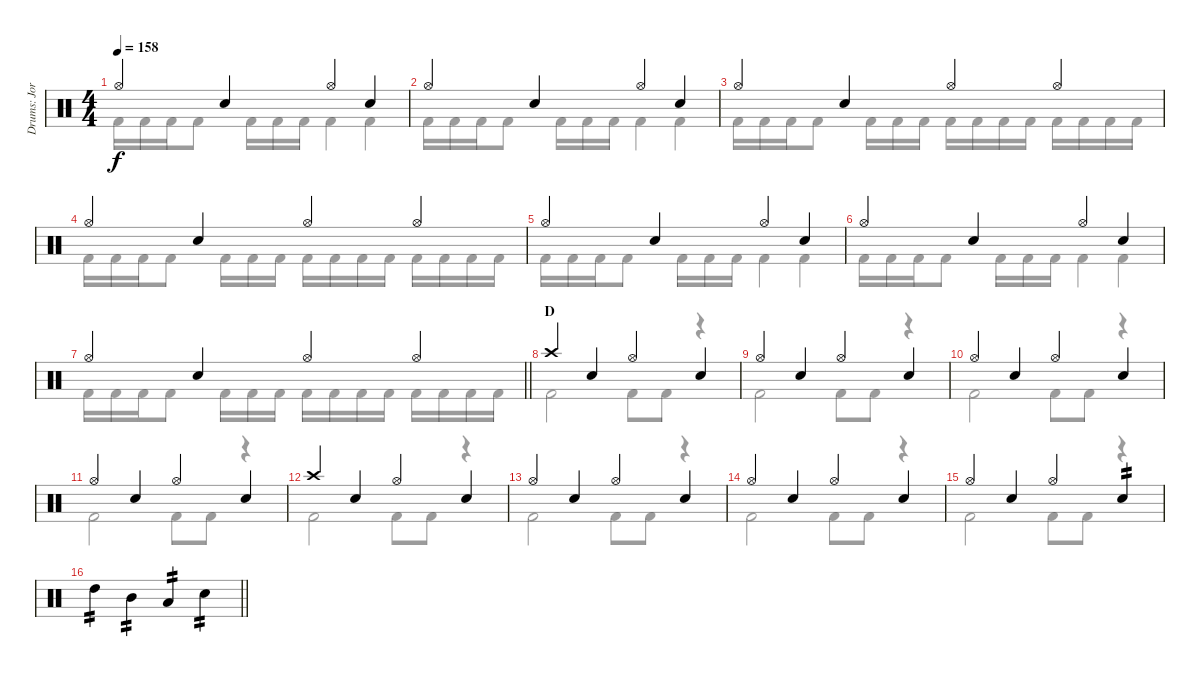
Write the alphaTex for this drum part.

\track ("Drums: Jorg" "Drums: Jor") {instrument percussion}
\staff {score}
\articulation defaults
\voice
\ts (4 4)
\tempo 158
\clef neutral
\ks c "Hi-Hat (open)".4{dy f} "Snare (hit) 2".4 "Hi-Hat (open)".4 "Snare (hit) 2".4
|
"Hi-Hat (open)".4 "Snare (hit) 2".4 "Hi-Hat (open)".4 "Snare (hit) 2".4 |
"Hi-Hat (open)".4 "Snare (hit) 2".4 "Hi-Hat (open)".4 "Hi-Hat (open)".4 |
"Hi-Hat (open)".4 "Snare (hit) 2".4 "Hi-Hat (open)".4 "Hi-Hat (open)".4 |
"Hi-Hat (open)".4 "Snare (hit) 2".4 "Hi-Hat (open)".4 "Snare (hit) 2".4 |
"Hi-Hat (open)".4 "Snare (hit) 2".4 "Hi-Hat (open)".4 "Snare (hit) 2".4 |
\barLineRight lightlight "Hi-Hat (open)".4 "Snare (hit) 2".4 "Hi-Hat (open)".4 "Hi-Hat (open)".4
|
\section ("" "D")
"Crash high (hit)".4 "Snare (hit) 2".4 "Hi-Hat (open)".4 "Snare (hit) 2".4 |
"Hi-Hat (open)".4 "Snare (hit) 2".4 "Hi-Hat (open)".4 "Snare (hit) 2".4 |
"Hi-Hat (open)".4 "Snare (hit) 2".4 "Hi-Hat (open)".4 "Snare (hit) 2".4 |
"Hi-Hat (open)".4 "Snare (hit) 2".4 "Hi-Hat (open)".4 "Snare (hit) 2".4 |
"Crash high (hit)".4 "Snare (hit) 2".4 "Hi-Hat (open)".4 "Snare (hit) 2".4 |
"Hi-Hat (open)".4 "Snare (hit) 2".4 "Hi-Hat (open)".4 "Snare (hit) 2".4 |
"Hi-Hat (open)".4 "Snare (hit) 2".4 "Hi-Hat (open)".4 "Snare (hit) 2".4 |
"Hi-Hat (open)".4 "Snare (hit) 2".4 "Hi-Hat (open)".4 "Snare (hit) 2".4{tp 2} |
\barLineRight lightlight "High Tom (hit)".4{tp 2} "Mid Tom (hit)".4{tp 2} "Low Tom (hit)".4{tp 2} "Electric Snare (hit)".4{tp 2}
\voice
\clef neutral
\ottava regular
\simile none
\ks c "Kick (hit) 2".16{dy f} "Kick (hit) 2".16 "Kick (hit) 2".16 "Kick (hit) 2".8 "Kick (hit) 2".16 "Kick (hit) 2".16 "Kick (hit) 2".16 "Kick (hit) 2".4 "Kick (hit) 2".4
|
"Kick (hit) 2".16 "Kick (hit) 2".16 "Kick (hit) 2".16 "Kick (hit) 2".8 "Kick (hit) 2".16 "Kick (hit) 2".16 "Kick (hit) 2".16 "Kick (hit) 2".4 "Kick (hit) 2".4 |
"Kick (hit) 2".16 "Kick (hit) 2".16 "Kick (hit) 2".16 "Kick (hit) 2".8 "Kick (hit) 2".16 "Kick (hit) 2".16 "Kick (hit) 2".16 "Kick (hit) 2".16 "Kick (hit) 2".16 "Kick (hit) 2".16 "Kick (hit) 2".16 "Kick (hit) 2".16 "Kick (hit) 2".16 "Kick (hit) 2".16 "Kick (hit) 2".16 |
"Kick (hit) 2".16 "Kick (hit) 2".16 "Kick (hit) 2".16 "Kick (hit) 2".8 "Kick (hit) 2".16 "Kick (hit) 2".16 "Kick (hit) 2".16 "Kick (hit) 2".16 "Kick (hit) 2".16 "Kick (hit) 2".16 "Kick (hit) 2".16 "Kick (hit) 2".16 "Kick (hit) 2".16 "Kick (hit) 2".16 "Kick (hit) 2".16 |
"Kick (hit) 2".16 "Kick (hit) 2".16 "Kick (hit) 2".16 "Kick (hit) 2".8 "Kick (hit) 2".16 "Kick (hit) 2".16 "Kick (hit) 2".16 "Kick (hit) 2".4 "Kick (hit) 2".4 |
"Kick (hit) 2".16 "Kick (hit) 2".16 "Kick (hit) 2".16 "Kick (hit) 2".8 "Kick (hit) 2".16 "Kick (hit) 2".16 "Kick (hit) 2".16 "Kick (hit) 2".4 "Kick (hit) 2".4 |
\barLineRight lightlight "Kick (hit) 2".16 "Kick (hit) 2".16 "Kick (hit) 2".16 "Kick (hit) 2".8 "Kick (hit) 2".16 "Kick (hit) 2".16 "Kick (hit) 2".16 "Kick (hit) 2".16 "Kick (hit) 2".16 "Kick (hit) 2".16 "Kick (hit) 2".16 "Kick (hit) 2".16 "Kick (hit) 2".16 "Kick (hit) 2".16 "Kick (hit) 2".16
|
"Kick (hit) 2".2 "Kick (hit) 2".8 "Kick (hit) 2".8 r.4 |
"Kick (hit) 2".2 "Kick (hit) 2".8 "Kick (hit) 2".8 r.4 |
"Kick (hit) 2".2 "Kick (hit) 2".8 "Kick (hit) 2".8 r.4 |
"Kick (hit) 2".2 "Kick (hit) 2".8 "Kick (hit) 2".8 r.4 |
"Kick (hit) 2".2 "Kick (hit) 2".8 "Kick (hit) 2".8 r.4 |
"Kick (hit) 2".2 "Kick (hit) 2".8 "Kick (hit) 2".8 r.4 |
"Kick (hit) 2".2 "Kick (hit) 2".8 "Kick (hit) 2".8 r.4 |
"Kick (hit) 2".2 "Kick (hit) 2".8 "Kick (hit) 2".8 r.4 |
\barLineRight lightlight
